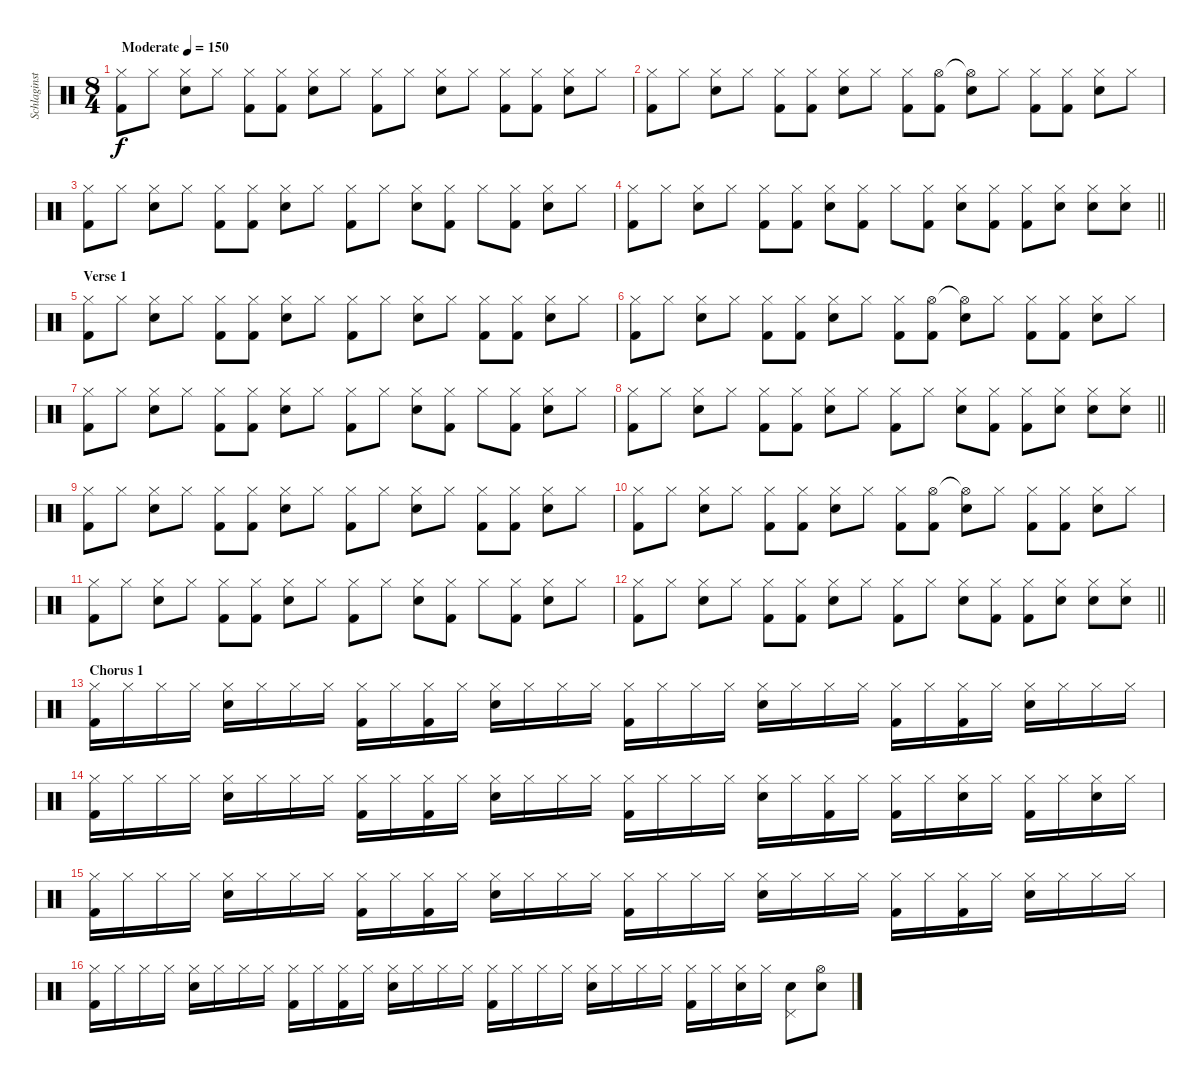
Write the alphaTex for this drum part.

\track ("Schlaginstrumente - Auswahl" "Schlaginst") {instrument percussion}
\staff {score}
\articulation defaults
\ts (8 4)
\tempo (150 "Moderate")
\clef neutral
\ks c
("Hi-Hat (closed)" "Kick (hit) 2").8{dy f} "Hi-Hat (closed)".8 ("Hi-Hat (closed)" "Electric Snare (hit)").8 "Hi-Hat (closed)".8 ("Hi-Hat (closed)" "Kick (hit) 2").8 ("Hi-Hat (closed)" "Kick (hit) 2").8 ("Hi-Hat (closed)" "Electric Snare (hit)").8 "Hi-Hat (closed)".8 ("Hi-Hat (closed)" "Kick (hit) 2").8 "Hi-Hat (closed)".8 ("Hi-Hat (closed)" "Electric Snare (hit)").8 "Hi-Hat (closed)".8 ("Hi-Hat (closed)" "Kick (hit) 2").8 ("Hi-Hat (closed)" "Kick (hit) 2").8 ("Hi-Hat (closed)" "Electric Snare (hit)").8 "Hi-Hat (closed)".8 |
("Hi-Hat (closed)" "Kick (hit) 2").8 "Hi-Hat (closed)".8 ("Hi-Hat (closed)" "Electric Snare (hit)").8 "Hi-Hat (closed)".8 ("Hi-Hat (closed)" "Kick (hit) 2").8 ("Hi-Hat (closed)" "Kick (hit) 2").8 ("Hi-Hat (closed)" "Electric Snare (hit)").8 "Hi-Hat (closed)".8 ("Hi-Hat (closed)" "Kick (hit) 2").8 ("Hi-Hat (open)" "Kick (hit) 2").8 ("Hi-Hat (open)"{t} "Electric Snare (hit)").8 "Hi-Hat (closed)".8 ("Hi-Hat (closed)" "Kick (hit) 2").8 ("Hi-Hat (closed)" "Kick (hit) 2").8 ("Hi-Hat (closed)" "Electric Snare (hit)").8 "Hi-Hat (closed)".8 |
("Hi-Hat (closed)" "Kick (hit) 2").8 "Hi-Hat (closed)".8 ("Hi-Hat (closed)" "Electric Snare (hit)").8 "Hi-Hat (closed)".8 ("Hi-Hat (closed)" "Kick (hit) 2").8 ("Hi-Hat (closed)" "Kick (hit) 2").8 ("Hi-Hat (closed)" "Electric Snare (hit)").8 "Hi-Hat (closed)".8 ("Hi-Hat (closed)" "Kick (hit) 2").8 "Hi-Hat (closed)".8 ("Hi-Hat (closed)" "Electric Snare (hit)").8 ("Hi-Hat (closed)" "Kick (hit) 2").8 "Hi-Hat (closed)".8 ("Hi-Hat (closed)" "Kick (hit) 2").8 ("Hi-Hat (closed)" "Electric Snare (hit)").8 "Hi-Hat (closed)".8 |
\barLineRight lightlight
("Hi-Hat (closed)" "Kick (hit) 2").8 "Hi-Hat (closed)".8 ("Hi-Hat (closed)" "Electric Snare (hit)").8 "Hi-Hat (closed)".8 ("Hi-Hat (closed)" "Kick (hit) 2").8 ("Hi-Hat (closed)" "Kick (hit) 2").8 ("Hi-Hat (closed)" "Electric Snare (hit)").8 ("Hi-Hat (closed)" "Kick (hit) 2").8 "Hi-Hat (closed)".8 ("Hi-Hat (closed)" "Kick (hit) 2").8 ("Hi-Hat (closed)" "Electric Snare (hit)").8 ("Hi-Hat (closed)" "Kick (hit) 2").8 ("Hi-Hat (closed)" "Kick (hit) 2").8 ("Hi-Hat (closed)" "Electric Snare (hit)").8 ("Hi-Hat (closed)" "Electric Snare (hit)").8 ("Hi-Hat (closed)" "Electric Snare (hit)").8 |
\section ("" "Verse 1")
("Hi-Hat (closed)" "Kick (hit) 2").8 "Hi-Hat (closed)".8 ("Hi-Hat (closed)" "Electric Snare (hit)").8 "Hi-Hat (closed)".8 ("Hi-Hat (closed)" "Kick (hit) 2").8 ("Hi-Hat (closed)" "Kick (hit) 2").8 ("Hi-Hat (closed)" "Electric Snare (hit)").8 "Hi-Hat (closed)".8 ("Hi-Hat (closed)" "Kick (hit) 2").8 "Hi-Hat (closed)".8 ("Hi-Hat (closed)" "Electric Snare (hit)").8 "Hi-Hat (closed)".8 ("Hi-Hat (closed)" "Kick (hit) 2").8 ("Hi-Hat (closed)" "Kick (hit) 2").8 ("Hi-Hat (closed)" "Electric Snare (hit)").8 "Hi-Hat (closed)".8 |
("Hi-Hat (closed)" "Kick (hit) 2").8 "Hi-Hat (closed)".8 ("Hi-Hat (closed)" "Electric Snare (hit)").8 "Hi-Hat (closed)".8 ("Hi-Hat (closed)" "Kick (hit) 2").8 ("Hi-Hat (closed)" "Kick (hit) 2").8 ("Hi-Hat (closed)" "Electric Snare (hit)").8 "Hi-Hat (closed)".8 ("Hi-Hat (closed)" "Kick (hit) 2").8 ("Hi-Hat (open)" "Kick (hit) 2").8 ("Hi-Hat (open)"{t} "Electric Snare (hit)").8 "Hi-Hat (closed)".8 ("Hi-Hat (closed)" "Kick (hit) 2").8 ("Hi-Hat (closed)" "Kick (hit) 2").8 ("Hi-Hat (closed)" "Electric Snare (hit)").8 "Hi-Hat (closed)".8 |
("Hi-Hat (closed)" "Kick (hit) 2").8 "Hi-Hat (closed)".8 ("Hi-Hat (closed)" "Electric Snare (hit)").8 "Hi-Hat (closed)".8 ("Hi-Hat (closed)" "Kick (hit) 2").8 ("Hi-Hat (closed)" "Kick (hit) 2").8 ("Hi-Hat (closed)" "Electric Snare (hit)").8 "Hi-Hat (closed)".8 ("Hi-Hat (closed)" "Kick (hit) 2").8 "Hi-Hat (closed)".8 ("Hi-Hat (closed)" "Electric Snare (hit)").8 ("Hi-Hat (closed)" "Kick (hit) 2").8 "Hi-Hat (closed)".8 ("Hi-Hat (closed)" "Kick (hit) 2").8 ("Hi-Hat (closed)" "Electric Snare (hit)").8 "Hi-Hat (closed)".8 |
\barLineRight lightlight
("Hi-Hat (closed)" "Kick (hit) 2").8 "Hi-Hat (closed)".8 ("Hi-Hat (closed)" "Electric Snare (hit)").8 "Hi-Hat (closed)".8 ("Hi-Hat (closed)" "Kick (hit) 2").8 ("Hi-Hat (closed)" "Kick (hit) 2").8 ("Hi-Hat (closed)" "Electric Snare (hit)").8 "Hi-Hat (closed)".8 ("Hi-Hat (closed)" "Kick (hit) 2").8 "Hi-Hat (closed)".8 ("Hi-Hat (closed)" "Electric Snare (hit)").8 ("Hi-Hat (closed)" "Kick (hit) 2").8 ("Hi-Hat (closed)" "Kick (hit) 2").8 ("Hi-Hat (closed)" "Electric Snare (hit)").8 ("Hi-Hat (closed)" "Electric Snare (hit)").8 ("Hi-Hat (closed)" "Electric Snare (hit)").8 |
("Hi-Hat (closed)" "Kick (hit) 2").8 "Hi-Hat (closed)".8 ("Hi-Hat (closed)" "Electric Snare (hit)").8 "Hi-Hat (closed)".8 ("Hi-Hat (closed)" "Kick (hit) 2").8 ("Hi-Hat (closed)" "Kick (hit) 2").8 ("Hi-Hat (closed)" "Electric Snare (hit)").8 "Hi-Hat (closed)".8 ("Hi-Hat (closed)" "Kick (hit) 2").8 "Hi-Hat (closed)".8 ("Hi-Hat (closed)" "Electric Snare (hit)").8 "Hi-Hat (closed)".8 ("Hi-Hat (closed)" "Kick (hit) 2").8 ("Hi-Hat (closed)" "Kick (hit) 2").8 ("Hi-Hat (closed)" "Electric Snare (hit)").8 "Hi-Hat (closed)".8 |
("Hi-Hat (closed)" "Kick (hit) 2").8 "Hi-Hat (closed)".8 ("Hi-Hat (closed)" "Electric Snare (hit)").8 "Hi-Hat (closed)".8 ("Hi-Hat (closed)" "Kick (hit) 2").8 ("Hi-Hat (closed)" "Kick (hit) 2").8 ("Hi-Hat (closed)" "Electric Snare (hit)").8 "Hi-Hat (closed)".8 ("Hi-Hat (closed)" "Kick (hit) 2").8 ("Hi-Hat (open)" "Kick (hit) 2").8 ("Hi-Hat (open)"{t} "Electric Snare (hit)").8 "Hi-Hat (closed)".8 ("Hi-Hat (closed)" "Kick (hit) 2").8 ("Hi-Hat (closed)" "Kick (hit) 2").8 ("Hi-Hat (closed)" "Electric Snare (hit)").8 "Hi-Hat (closed)".8 |
("Hi-Hat (closed)" "Kick (hit) 2").8 "Hi-Hat (closed)".8 ("Hi-Hat (closed)" "Electric Snare (hit)").8 "Hi-Hat (closed)".8 ("Hi-Hat (closed)" "Kick (hit) 2").8 ("Hi-Hat (closed)" "Kick (hit) 2").8 ("Hi-Hat (closed)" "Electric Snare (hit)").8 "Hi-Hat (closed)".8 ("Hi-Hat (closed)" "Kick (hit) 2").8 "Hi-Hat (closed)".8 ("Hi-Hat (closed)" "Electric Snare (hit)").8 ("Hi-Hat (closed)" "Kick (hit) 2").8 "Hi-Hat (closed)".8 ("Hi-Hat (closed)" "Kick (hit) 2").8 ("Hi-Hat (closed)" "Electric Snare (hit)").8 "Hi-Hat (closed)".8 |
\barLineRight lightlight
("Hi-Hat (closed)" "Kick (hit) 2").8 "Hi-Hat (closed)".8 ("Hi-Hat (closed)" "Electric Snare (hit)").8 "Hi-Hat (closed)".8 ("Hi-Hat (closed)" "Kick (hit) 2").8 ("Hi-Hat (closed)" "Kick (hit) 2").8 ("Hi-Hat (closed)" "Electric Snare (hit)").8 "Hi-Hat (closed)".8 ("Hi-Hat (closed)" "Kick (hit) 2").8 "Hi-Hat (closed)".8 ("Hi-Hat (closed)" "Electric Snare (hit)").8 ("Hi-Hat (closed)" "Kick (hit) 2").8 ("Hi-Hat (closed)" "Kick (hit) 2").8 ("Hi-Hat (closed)" "Electric Snare (hit)").8 ("Hi-Hat (closed)" "Electric Snare (hit)").8 ("Hi-Hat (closed)" "Electric Snare (hit)").8 |
\section ("" "Chorus 1")
("Hi-Hat (closed)" "Kick (hit) 2").16 "Hi-Hat (closed)".16 "Hi-Hat (closed)".16 "Hi-Hat (closed)".16 ("Hi-Hat (closed)" "Electric Snare (hit)").16 "Hi-Hat (closed)".16 "Hi-Hat (closed)".16 "Hi-Hat (closed)".16 ("Hi-Hat (closed)" "Kick (hit) 2").16 "Hi-Hat (closed)".16 ("Hi-Hat (closed)" "Kick (hit) 2").16 "Hi-Hat (closed)".16 ("Hi-Hat (closed)" "Electric Snare (hit)").16 "Hi-Hat (closed)".16 "Hi-Hat (closed)".16 "Hi-Hat (closed)".16 ("Hi-Hat (closed)" "Kick (hit) 2").16 "Hi-Hat (closed)".16 "Hi-Hat (closed)".16 "Hi-Hat (closed)".16 ("Hi-Hat (closed)" "Electric Snare (hit)").16 "Hi-Hat (closed)".16 "Hi-Hat (closed)".16 "Hi-Hat (closed)".16 ("Hi-Hat (closed)" "Kick (hit) 2").16 "Hi-Hat (closed)".16 ("Hi-Hat (closed)" "Kick (hit) 2").16 "Hi-Hat (closed)".16 ("Hi-Hat (closed)" "Electric Snare (hit)").16 "Hi-Hat (closed)".16 "Hi-Hat (closed)".16 "Hi-Hat (closed)".16 |
("Hi-Hat (closed)" "Kick (hit) 2").16 "Hi-Hat (closed)".16 "Hi-Hat (closed)".16 "Hi-Hat (closed)".16 ("Hi-Hat (closed)" "Electric Snare (hit)").16 "Hi-Hat (closed)".16 "Hi-Hat (closed)".16 "Hi-Hat (closed)".16 ("Hi-Hat (closed)" "Kick (hit) 2").16 "Hi-Hat (closed)".16 ("Hi-Hat (closed)" "Kick (hit) 2").16 "Hi-Hat (closed)".16 ("Hi-Hat (closed)" "Electric Snare (hit)").16 "Hi-Hat (closed)".16 "Hi-Hat (closed)".16 "Hi-Hat (closed)".16 ("Hi-Hat (closed)" "Kick (hit) 2").16 "Hi-Hat (closed)".16 "Hi-Hat (closed)".16 "Hi-Hat (closed)".16 ("Hi-Hat (closed)" "Electric Snare (hit)").16 "Hi-Hat (closed)".16 ("Hi-Hat (closed)" "Kick (hit) 2").16 "Hi-Hat (closed)".16 ("Hi-Hat (closed)" "Kick (hit) 2").16 "Hi-Hat (closed)".16 ("Hi-Hat (closed)" "Electric Snare (hit)").16 "Hi-Hat (closed)".16 ("Hi-Hat (closed)" "Kick (hit) 2").16 "Hi-Hat (closed)".16 ("Hi-Hat (closed)" "Electric Snare (hit)").16 "Hi-Hat (closed)".16 |
("Hi-Hat (closed)" "Kick (hit) 2").16 "Hi-Hat (closed)".16 "Hi-Hat (closed)".16 "Hi-Hat (closed)".16 ("Hi-Hat (closed)" "Electric Snare (hit)").16 "Hi-Hat (closed)".16 "Hi-Hat (closed)".16 "Hi-Hat (closed)".16 ("Hi-Hat (closed)" "Kick (hit) 2").16 "Hi-Hat (closed)".16 ("Hi-Hat (closed)" "Kick (hit) 2").16 "Hi-Hat (closed)".16 ("Hi-Hat (closed)" "Electric Snare (hit)").16 "Hi-Hat (closed)".16 "Hi-Hat (closed)".16 "Hi-Hat (closed)".16 ("Hi-Hat (closed)" "Kick (hit) 2").16 "Hi-Hat (closed)".16 "Hi-Hat (closed)".16 "Hi-Hat (closed)".16 ("Hi-Hat (closed)" "Electric Snare (hit)").16 "Hi-Hat (closed)".16 "Hi-Hat (closed)".16 "Hi-Hat (closed)".16 ("Hi-Hat (closed)" "Kick (hit) 2").16 "Hi-Hat (closed)".16 ("Hi-Hat (closed)" "Kick (hit) 2").16 "Hi-Hat (closed)".16 ("Hi-Hat (closed)" "Electric Snare (hit)").16 "Hi-Hat (closed)".16 "Hi-Hat (closed)".16 "Hi-Hat (closed)".16 |
("Hi-Hat (closed)" "Kick (hit) 2").16 "Hi-Hat (closed)".16 "Hi-Hat (closed)".16 "Hi-Hat (closed)".16 ("Hi-Hat (closed)" "Electric Snare (hit)").16 "Hi-Hat (closed)".16 "Hi-Hat (closed)".16 "Hi-Hat (closed)".16 ("Hi-Hat (closed)" "Kick (hit) 2").16 "Hi-Hat (closed)".16 ("Hi-Hat (closed)" "Kick (hit) 2").16 "Hi-Hat (closed)".16 ("Hi-Hat (closed)" "Electric Snare (hit)").16 "Hi-Hat (closed)".16 "Hi-Hat (closed)".16 "Hi-Hat (closed)".16 ("Hi-Hat (closed)" "Kick (hit) 2").16 "Hi-Hat (closed)".16 "Hi-Hat (closed)".16 "Hi-Hat (closed)".16 ("Hi-Hat (closed)" "Electric Snare (hit)").16 "Hi-Hat (closed)".16 "Hi-Hat (closed)".16 "Hi-Hat (closed)".16 ("Hi-Hat (closed)" "Kick (hit) 2").16 "Hi-Hat (closed)".16 ("Hi-Hat (closed)" "Electric Snare (hit)").16 "Hi-Hat (closed)".16 ("Pedal Hi-Hat (hit)" "Electric Snare (hit)").8 ("Hi-Hat (open)" "Electric Snare (hit)").8
